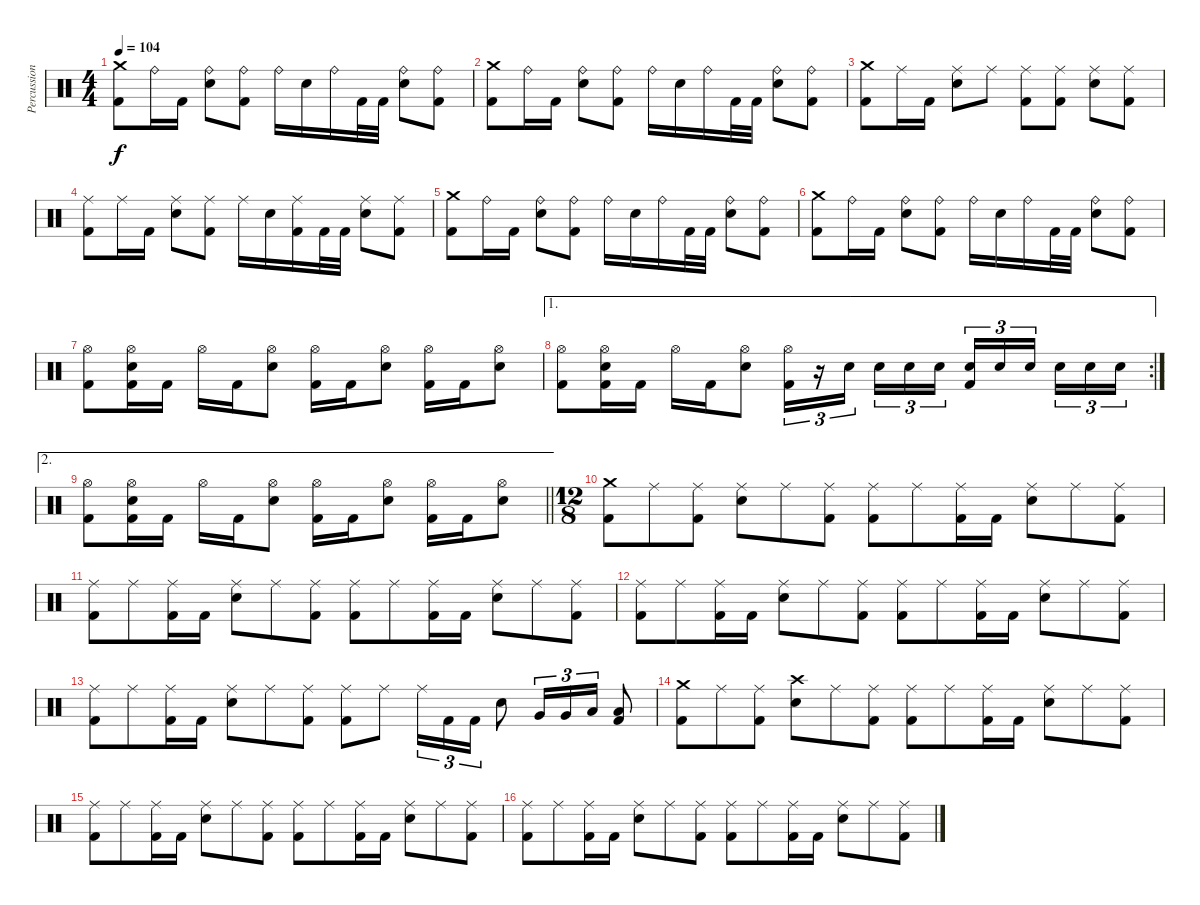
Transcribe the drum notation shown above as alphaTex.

\track ("Percussion" "Percussion") {instrument percussion}
\staff {score}
\articulation defaults
\ts (4 4)
\tempo 104
\clef neutral
\ks c
("Crash medium (hit)" "Kick (hit) 2").8{dy f} "Ride (bell)".16 "Kick (hit) 2".16 ("Ride (bell)" "Electric Snare (hit)").8 ("Ride (bell)" "Kick (hit) 2").8 "Ride (bell)".16 "Electric Snare (hit)".16 "Ride (bell)".16 "Kick (hit) 2".32 "Kick (hit) 2".32 ("Ride (bell)" "Electric Snare (hit)").8 ("Ride (bell)" "Kick (hit) 2").8 |
("Crash medium (hit)" "Kick (hit) 2").8 "Ride (bell)".16 "Kick (hit) 2".16 ("Ride (bell)" "Electric Snare (hit)").8 ("Ride (bell)" "Kick (hit) 2").8 "Ride (bell)".16 "Electric Snare (hit)".16 "Ride (bell)".16 "Kick (hit) 2".32 "Kick (hit) 2".32 ("Ride (bell)" "Electric Snare (hit)").8 ("Ride (bell)" "Kick (hit) 2").8 |
("Crash medium (hit)" "Kick (hit) 2").8 "Ride (middle)".16 "Kick (hit) 2".16 ("Ride (middle)" "Electric Snare (hit)").8 "Ride (middle)".8 ("Ride (middle)" "Kick (hit) 2").8 ("Ride (middle)" "Kick (hit) 2").8 ("Ride (middle)" "Electric Snare (hit)").8 ("Ride (middle)" "Kick (hit) 2").8 |
("Ride (middle)" "Kick (hit) 2").8 "Ride (middle)".16 "Kick (hit) 2".16 ("Ride (middle)" "Electric Snare (hit)").8 ("Ride (middle)" "Kick (hit) 2").8 "Ride (middle)".16 "Electric Snare (hit)".16 ("Ride (middle)" "Kick (hit) 2").16 "Kick (hit) 2".32 "Kick (hit) 2".32 ("Ride (middle)" "Electric Snare (hit)").8 ("Ride (middle)" "Kick (hit) 2").8 |
("Crash medium (hit)" "Kick (hit) 2").8 "Ride (bell)".16 "Kick (hit) 2".16 ("Ride (bell)" "Electric Snare (hit)").8 ("Ride (bell)" "Kick (hit) 2").8 "Ride (bell)".16 "Electric Snare (hit)".16 "Ride (bell)".16 "Kick (hit) 2".32 "Kick (hit) 2".32 ("Ride (bell)" "Electric Snare (hit)").8 ("Ride (bell)" "Kick (hit) 2").8 |
("Crash medium (hit)" "Kick (hit) 2").8 "Ride (bell)".16 "Kick (hit) 2".16 ("Ride (bell)" "Electric Snare (hit)").8 ("Ride (bell)" "Kick (hit) 2").8 "Ride (bell)".16 "Electric Snare (hit)".16 "Ride (bell)".16 "Kick (hit) 2".32 "Kick (hit) 2".32 ("Ride (bell)" "Electric Snare (hit)").8 ("Ride (bell)" "Kick (hit) 2").8 |
("Hi-Hat (open)" "Kick (hit) 2").8 ("Hi-Hat (open)" "Electric Snare (hit)" "Kick (hit) 2").16 "Kick (hit) 2".16 "Hi-Hat (open)".16 "Kick (hit) 2".16 ("Hi-Hat (open)" "Electric Snare (hit)").8 ("Hi-Hat (open)" "Kick (hit) 2").16 "Kick (hit) 2".16 ("Hi-Hat (open)" "Electric Snare (hit)").8 ("Hi-Hat (open)" "Kick (hit) 2").16 "Kick (hit) 2".16 ("Hi-Hat (open)" "Electric Snare (hit)").8 |
\ae 1
\rc 2
("Hi-Hat (open)" "Kick (hit) 2").8 ("Hi-Hat (open)" "Electric Snare (hit)" "Kick (hit) 2").16 "Kick (hit) 2".16 "Hi-Hat (open)".16 "Kick (hit) 2".16 ("Hi-Hat (open)" "Electric Snare (hit)").8 ("Hi-Hat (open)" "Kick (hit) 2").16{tu (3 2)} r.16{tu (3 2)} "Electric Snare (hit)".16{tu (3 2) beam splitsecondary} "Electric Snare (hit)".16{tu (3 2)} "Electric Snare (hit)".16{tu (3 2)} "Electric Snare (hit)".16{tu (3 2)} ("Electric Snare (hit)" "Kick (hit) 2").16{tu (3 2)} "Electric Snare (hit)".16{tu (3 2)} "Electric Snare (hit)".16{tu (3 2) beam splitsecondary} "Electric Snare (hit)".16{tu (3 2)} "Electric Snare (hit)".16{tu (3 2)} "Electric Snare (hit)".16{tu (3 2)} |
\ae 2
\barLineRight lightlight
("Hi-Hat (open)" "Kick (hit) 2").8 ("Hi-Hat (open)" "Electric Snare (hit)" "Kick (hit) 2").16 "Kick (hit) 2".16 "Hi-Hat (open)".16 "Kick (hit) 2".16 ("Hi-Hat (open)" "Electric Snare (hit)").8 ("Hi-Hat (open)" "Kick (hit) 2").16 "Kick (hit) 2".16 ("Hi-Hat (open)" "Electric Snare (hit)").8 ("Hi-Hat (open)" "Kick (hit) 2").16 "Kick (hit) 2".16 ("Hi-Hat (open)" "Electric Snare (hit)").8 |
\ts (12 8)
("Crash medium (hit)" "Kick (hit) 2").8 "Ride (middle)".8 ("Ride (middle)" "Kick (hit) 2").8 ("Ride (middle)" "Electric Snare (hit)").8 "Ride (middle)".8 ("Ride (middle)" "Kick (hit) 2").8 ("Ride (middle)" "Kick (hit) 2").8 "Ride (middle)".8 ("Ride (middle)" "Kick (hit) 2").16 "Kick (hit) 2".16 ("Ride (middle)" "Electric Snare (hit)").8 "Ride (middle)".8 ("Ride (middle)" "Kick (hit) 2").8 |
("Ride (middle)" "Kick (hit) 2").8 "Ride (middle)".8 ("Ride (middle)" "Kick (hit) 2").16 "Kick (hit) 2".16 ("Ride (middle)" "Electric Snare (hit)").8 "Ride (middle)".8 ("Ride (middle)" "Kick (hit) 2").8 ("Ride (middle)" "Kick (hit) 2").8 "Ride (middle)".8 ("Ride (middle)" "Kick (hit) 2").16 "Kick (hit) 2".16 ("Ride (middle)" "Electric Snare (hit)").8 "Ride (middle)".8 ("Ride (middle)" "Kick (hit) 2").8 |
("Ride (middle)" "Kick (hit) 2").8 "Ride (middle)".8 ("Ride (middle)" "Kick (hit) 2").16 "Kick (hit) 2".16 ("Ride (middle)" "Electric Snare (hit)").8 "Ride (middle)".8 ("Ride (middle)" "Kick (hit) 2").8 ("Ride (middle)" "Kick (hit) 2").8 "Ride (middle)".8 ("Ride (middle)" "Kick (hit) 2").16 "Kick (hit) 2".16 ("Ride (middle)" "Electric Snare (hit)").8 "Ride (middle)".8 ("Ride (middle)" "Kick (hit) 2").8 |
("Ride (middle)" "Kick (hit) 2").8 "Ride (middle)".8 ("Ride (middle)" "Kick (hit) 2").16 "Kick (hit) 2".16 ("Ride (middle)" "Electric Snare (hit)").8 "Ride (middle)".8 ("Ride (middle)" "Kick (hit) 2").8 ("Ride (middle)" "Kick (hit) 2").8 "Ride (middle)".8 "Ride (middle)".16{tu (3 2)} "Kick (hit) 2".16{tu (3 2)} "Kick (hit) 2".16{tu (3 2)} "Electric Snare (hit)".8 "Very Low Tom (hit)".16{tu (3 2)} "Very Low Tom (hit)".16{tu (3 2)} "Low Floor Tom (hit)".16{tu (3 2)} ("Low Floor Tom (hit)" "Kick (hit) 2").8 |
("Crash medium (hit)" "Kick (hit) 2").8 "Ride (middle)".8 ("Ride (middle)" "Kick (hit) 2").8 ("Crash high (hit)" "Electric Snare (hit)").8 "Ride (middle)".8 ("Ride (middle)" "Kick (hit) 2").8 ("Ride (middle)" "Kick (hit) 2").8 "Ride (middle)".8 ("Ride (middle)" "Kick (hit) 2").16 "Kick (hit) 2".16 ("Ride (middle)" "Electric Snare (hit)").8 "Ride (middle)".8 ("Ride (middle)" "Kick (hit) 2").8 |
("Ride (middle)" "Kick (hit) 2").8 "Ride (middle)".8 ("Ride (middle)" "Kick (hit) 2").16 "Kick (hit) 2".16 ("Ride (middle)" "Electric Snare (hit)").8 "Ride (middle)".8 ("Ride (middle)" "Kick (hit) 2").8 ("Ride (middle)" "Kick (hit) 2").8 "Ride (middle)".8 ("Ride (middle)" "Kick (hit) 2").16 "Kick (hit) 2".16 ("Ride (middle)" "Electric Snare (hit)").8 "Ride (middle)".8 ("Ride (middle)" "Kick (hit) 2").8 |
("Ride (middle)" "Kick (hit) 2").8 "Ride (middle)".8 ("Ride (middle)" "Kick (hit) 2").16 "Kick (hit) 2".16 ("Ride (middle)" "Electric Snare (hit)").8 "Ride (middle)".8 ("Ride (middle)" "Kick (hit) 2").8 ("Ride (middle)" "Kick (hit) 2").8 "Ride (middle)".8 ("Ride (middle)" "Kick (hit) 2").16 "Kick (hit) 2".16 ("Ride (middle)" "Electric Snare (hit)").8 "Ride (middle)".8 ("Ride (middle)" "Kick (hit) 2").8
